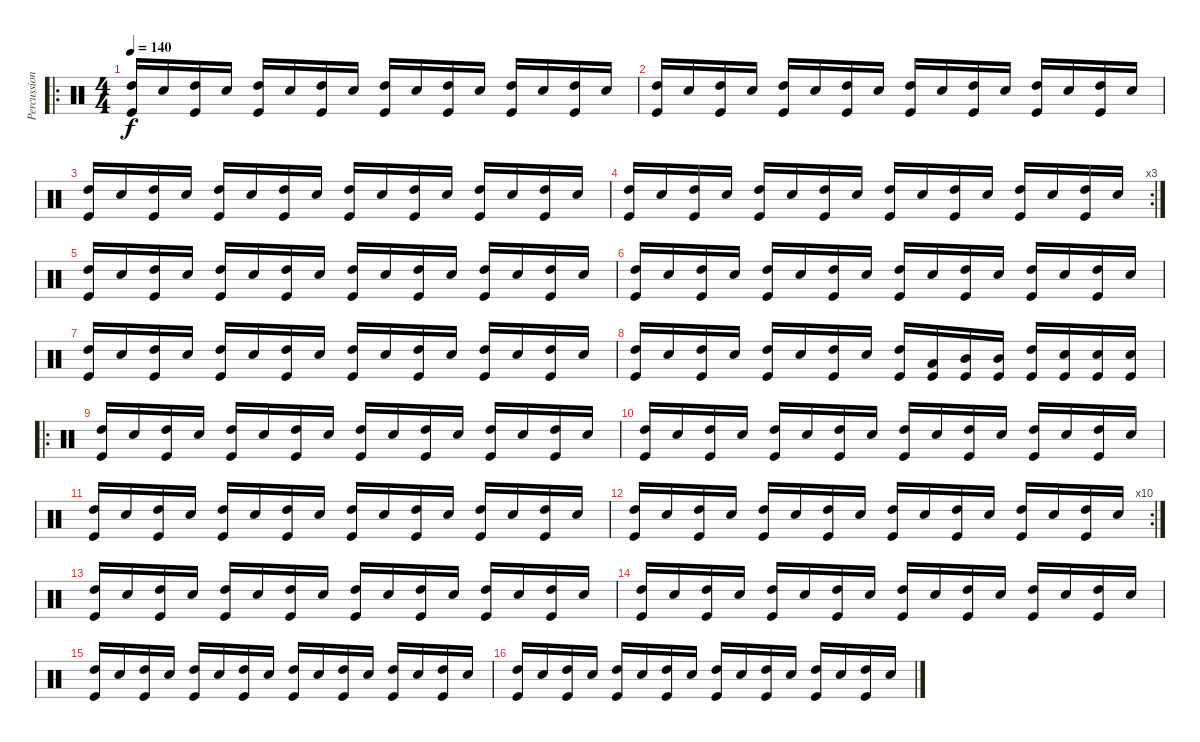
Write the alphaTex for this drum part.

\track ("Percussioni" "Percussion") {instrument percussion}
\staff {score}
\articulation defaults
\ro
\ts (4 4)
\tempo 140
\clef neutral
\ks c
("High Tom (hit)" "Kick (hit)").16{dy f} "Snare (hit) 2".16 ("High Tom (hit)" "Kick (hit)").16 "Snare (hit) 2".16 ("High Tom (hit)" "Kick (hit)").16 "Snare (hit) 2".16 ("High Tom (hit)" "Kick (hit)").16 "Snare (hit) 2".16 ("High Tom (hit)" "Kick (hit)").16 "Snare (hit) 2".16 ("High Tom (hit)" "Kick (hit)").16 "Snare (hit) 2".16 ("High Tom (hit)" "Kick (hit)").16 "Snare (hit) 2".16 ("High Tom (hit)" "Kick (hit)").16 "Snare (hit) 2".16 |
("High Tom (hit)" "Kick (hit)").16 "Snare (hit) 2".16 ("High Tom (hit)" "Kick (hit)").16 "Snare (hit) 2".16 ("High Tom (hit)" "Kick (hit)").16 "Snare (hit) 2".16 ("High Tom (hit)" "Kick (hit)").16 "Snare (hit) 2".16 ("High Tom (hit)" "Kick (hit)").16 "Snare (hit) 2".16 ("High Tom (hit)" "Kick (hit)").16 "Snare (hit) 2".16 ("High Tom (hit)" "Kick (hit)").16 "Snare (hit) 2".16 ("High Tom (hit)" "Kick (hit)").16 "Snare (hit) 2".16 |
("High Tom (hit)" "Kick (hit)").16 "Snare (hit) 2".16 ("High Tom (hit)" "Kick (hit)").16 "Snare (hit) 2".16 ("High Tom (hit)" "Kick (hit)").16 "Snare (hit) 2".16 ("High Tom (hit)" "Kick (hit)").16 "Snare (hit) 2".16 ("High Tom (hit)" "Kick (hit)").16 "Snare (hit) 2".16 ("High Tom (hit)" "Kick (hit)").16 "Snare (hit) 2".16 ("High Tom (hit)" "Kick (hit)").16 "Snare (hit) 2".16 ("High Tom (hit)" "Kick (hit)").16 "Snare (hit) 2".16 |
\rc 3
("High Tom (hit)" "Kick (hit)").16 "Snare (hit) 2".16 ("High Tom (hit)" "Kick (hit)").16 "Snare (hit) 2".16 ("High Tom (hit)" "Kick (hit)").16 "Snare (hit) 2".16 ("High Tom (hit)" "Kick (hit)").16 "Snare (hit) 2".16 ("High Tom (hit)" "Kick (hit)").16 "Snare (hit) 2".16 ("High Tom (hit)" "Kick (hit)").16 "Snare (hit) 2".16 ("High Tom (hit)" "Kick (hit)").16 "Snare (hit) 2".16 ("High Tom (hit)" "Kick (hit)").16 "Snare (hit) 2".16 |
("High Tom (hit)" "Kick (hit)").16 "Snare (hit) 2".16 ("High Tom (hit)" "Kick (hit)").16 "Snare (hit) 2".16 ("High Tom (hit)" "Kick (hit)").16 "Snare (hit) 2".16 ("High Tom (hit)" "Kick (hit)").16 "Snare (hit) 2".16 ("High Tom (hit)" "Kick (hit)").16 "Snare (hit) 2".16 ("High Tom (hit)" "Kick (hit)").16 "Snare (hit) 2".16 ("High Tom (hit)" "Kick (hit)").16 "Snare (hit) 2".16 ("High Tom (hit)" "Kick (hit)").16 "Snare (hit) 2".16 |
("High Tom (hit)" "Kick (hit)").16 "Snare (hit) 2".16 ("High Tom (hit)" "Kick (hit)").16 "Snare (hit) 2".16 ("High Tom (hit)" "Kick (hit)").16 "Snare (hit) 2".16 ("High Tom (hit)" "Kick (hit)").16 "Snare (hit) 2".16 ("High Tom (hit)" "Kick (hit)").16 "Snare (hit) 2".16 ("High Tom (hit)" "Kick (hit)").16 "Snare (hit) 2".16 ("High Tom (hit)" "Kick (hit)").16 "Snare (hit) 2".16 ("High Tom (hit)" "Kick (hit)").16 "Snare (hit) 2".16 |
("High Tom (hit)" "Kick (hit)").16 "Snare (hit) 2".16 ("High Tom (hit)" "Kick (hit)").16 "Snare (hit) 2".16 ("High Tom (hit)" "Kick (hit)").16 "Snare (hit) 2".16 ("High Tom (hit)" "Kick (hit)").16 "Snare (hit) 2".16 ("High Tom (hit)" "Kick (hit)").16 "Snare (hit) 2".16 ("High Tom (hit)" "Kick (hit)").16 "Snare (hit) 2".16 ("High Tom (hit)" "Kick (hit)").16 "Snare (hit) 2".16 ("High Tom (hit)" "Kick (hit)").16 "Snare (hit) 2".16 |
("High Tom (hit)" "Kick (hit)").16 "Snare (hit) 2".16 ("High Tom (hit)" "Kick (hit)").16 "Snare (hit) 2".16 ("High Tom (hit)" "Kick (hit)").16 "Snare (hit) 2".16 ("High Tom (hit)" "Kick (hit)").16 "Snare (hit) 2".16 ("High Tom (hit)" "Kick (hit)").16 ("Low Tom (hit)" "Kick (hit)").16 ("Mid Tom (hit)" "Kick (hit)").16 ("Mid Tom (hit)" "Kick (hit)").16 ("High Tom (hit)" "Kick (hit)").16 ("Snare (hit) 2" "Kick (hit)").16 ("Snare (hit) 2" "Kick (hit)").16 ("Snare (hit) 2" "Kick (hit)").16 |
\ro
("High Tom (hit)" "Kick (hit)").16 "Snare (hit) 2".16 ("High Tom (hit)" "Kick (hit)").16 "Snare (hit) 2".16 ("High Tom (hit)" "Kick (hit)").16 "Snare (hit) 2".16 ("High Tom (hit)" "Kick (hit)").16 "Snare (hit) 2".16 ("High Tom (hit)" "Kick (hit)").16 "Snare (hit) 2".16 ("High Tom (hit)" "Kick (hit)").16 "Snare (hit) 2".16 ("High Tom (hit)" "Kick (hit)").16 "Snare (hit) 2".16 ("High Tom (hit)" "Kick (hit)").16 "Snare (hit) 2".16 |
("High Tom (hit)" "Kick (hit)").16 "Snare (hit) 2".16 ("High Tom (hit)" "Kick (hit)").16 "Snare (hit) 2".16 ("High Tom (hit)" "Kick (hit)").16 "Snare (hit) 2".16 ("High Tom (hit)" "Kick (hit)").16 "Snare (hit) 2".16 ("High Tom (hit)" "Kick (hit)").16 "Snare (hit) 2".16 ("High Tom (hit)" "Kick (hit)").16 "Snare (hit) 2".16 ("High Tom (hit)" "Kick (hit)").16 "Snare (hit) 2".16 ("High Tom (hit)" "Kick (hit)").16 "Snare (hit) 2".16 |
("High Tom (hit)" "Kick (hit)").16 "Snare (hit) 2".16 ("High Tom (hit)" "Kick (hit)").16 "Snare (hit) 2".16 ("High Tom (hit)" "Kick (hit)").16 "Snare (hit) 2".16 ("High Tom (hit)" "Kick (hit)").16 "Snare (hit) 2".16 ("High Tom (hit)" "Kick (hit)").16 "Snare (hit) 2".16 ("High Tom (hit)" "Kick (hit)").16 "Snare (hit) 2".16 ("High Tom (hit)" "Kick (hit)").16 "Snare (hit) 2".16 ("High Tom (hit)" "Kick (hit)").16 "Snare (hit) 2".16 |
\rc 10
("High Tom (hit)" "Kick (hit)").16 "Snare (hit) 2".16 ("High Tom (hit)" "Kick (hit)").16 "Snare (hit) 2".16 ("High Tom (hit)" "Kick (hit)").16 "Snare (hit) 2".16 ("High Tom (hit)" "Kick (hit)").16 "Snare (hit) 2".16 ("High Tom (hit)" "Kick (hit)").16 "Snare (hit) 2".16 ("High Tom (hit)" "Kick (hit)").16 "Snare (hit) 2".16 ("High Tom (hit)" "Kick (hit)").16 "Snare (hit) 2".16 ("High Tom (hit)" "Kick (hit)").16 "Snare (hit) 2".16 |
("High Tom (hit)" "Kick (hit)").16 "Snare (hit) 2".16 ("High Tom (hit)" "Kick (hit)").16 "Snare (hit) 2".16 ("High Tom (hit)" "Kick (hit)").16 "Snare (hit) 2".16 ("High Tom (hit)" "Kick (hit)").16 "Snare (hit) 2".16 ("High Tom (hit)" "Kick (hit)").16 "Snare (hit) 2".16 ("High Tom (hit)" "Kick (hit)").16 "Snare (hit) 2".16 ("High Tom (hit)" "Kick (hit)").16 "Snare (hit) 2".16 ("High Tom (hit)" "Kick (hit)").16 "Snare (hit) 2".16 |
("High Tom (hit)" "Kick (hit)").16{volume 12} "Snare (hit) 2".16 ("High Tom (hit)" "Kick (hit)").16 "Snare (hit) 2".16 ("High Tom (hit)" "Kick (hit)").16 "Snare (hit) 2".16 ("High Tom (hit)" "Kick (hit)").16 "Snare (hit) 2".16 ("High Tom (hit)" "Kick (hit)").16{volume 7} "Snare (hit) 2".16 ("High Tom (hit)" "Kick (hit)").16 "Snare (hit) 2".16 ("High Tom (hit)" "Kick (hit)").16 "Snare (hit) 2".16 ("High Tom (hit)" "Kick (hit)").16 "Snare (hit) 2".16 |
("High Tom (hit)" "Kick (hit)").16{volume 5} "Snare (hit) 2".16 ("High Tom (hit)" "Kick (hit)").16 "Snare (hit) 2".16 ("High Tom (hit)" "Kick (hit)").16 "Snare (hit) 2".16 ("High Tom (hit)" "Kick (hit)").16 "Snare (hit) 2".16 ("High Tom (hit)" "Kick (hit)").16{volume 3} "Snare (hit) 2".16 ("High Tom (hit)" "Kick (hit)").16 "Snare (hit) 2".16 ("High Tom (hit)" "Kick (hit)").16 "Snare (hit) 2".16 ("High Tom (hit)" "Kick (hit)").16 "Snare (hit) 2".16 |
("High Tom (hit)" "Kick (hit)").16{volume 1} "Snare (hit) 2".16 ("High Tom (hit)" "Kick (hit)").16 "Snare (hit) 2".16 ("High Tom (hit)" "Kick (hit)").16 "Snare (hit) 2".16 ("High Tom (hit)" "Kick (hit)").16 "Snare (hit) 2".16 ("High Tom (hit)" "Kick (hit)").16{volume 0} "Snare (hit) 2".16 ("High Tom (hit)" "Kick (hit)").16 "Snare (hit) 2".16 ("High Tom (hit)" "Kick (hit)").16 "Snare (hit) 2".16 ("High Tom (hit)" "Kick (hit)").16 "Snare (hit) 2".16
